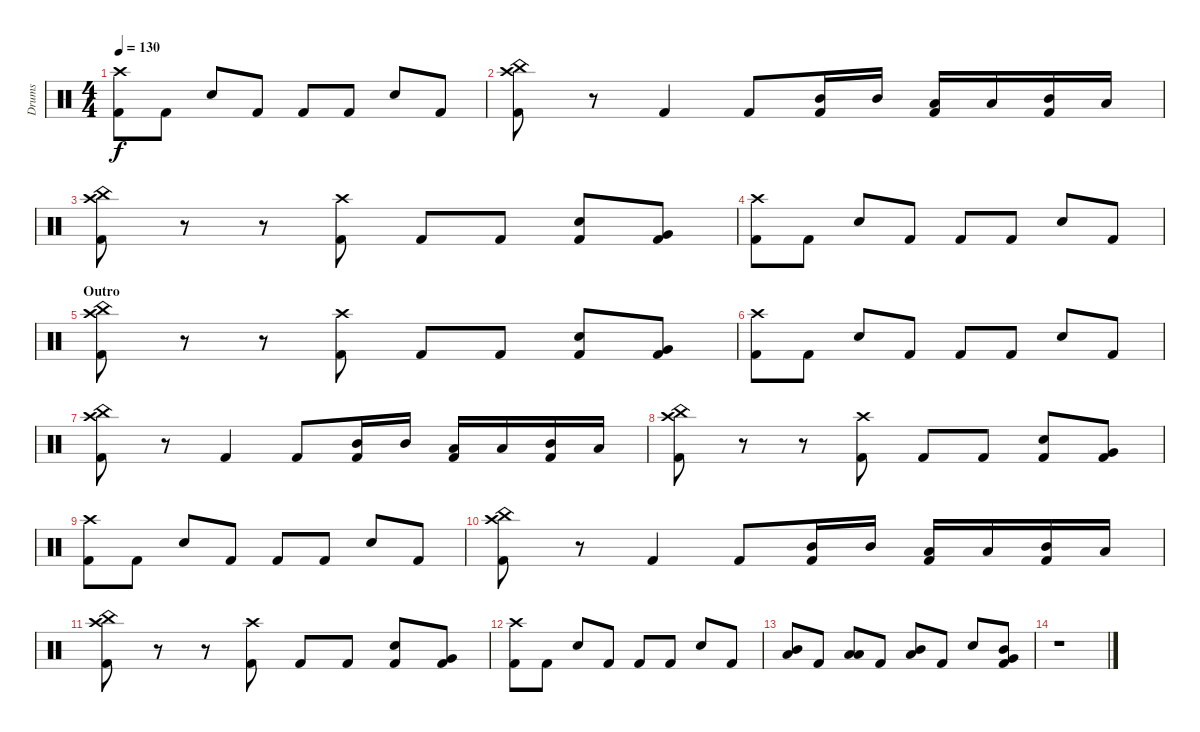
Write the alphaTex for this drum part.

\track ("Drums" "Drums") {instrument percussion}
\staff {score}
\articulation defaults
\ts (4 4)
\tempo 130
\clef neutral
\ks c
("Crash high (hit)" "Kick (hit) 2").8{dy f} "Kick (hit) 2".8 "Electric Snare (hit)".8 "Kick (hit) 2".8 "Kick (hit) 2".8 "Kick (hit) 2".8 "Electric Snare (hit)".8 "Kick (hit) 2".8 |
("China (hit)" "Crash high (hit)" "Kick (hit) 2").8 r.8 "Kick (hit) 2".4 "Kick (hit) 2".8 ("Mid Tom (hit)" "Kick (hit) 2").16 "Mid Tom (hit)".16 ("Low Tom (hit)" "Kick (hit) 2").16 "Low Tom (hit)".16 ("Mid Tom (hit)" "Kick (hit) 2").16 "Low Floor Tom (hit)".16 |
("China (hit)" "Crash high (hit)" "Kick (hit) 2").8 r.8 r.8 ("Crash high (hit)" "Kick (hit) 2").8 "Kick (hit) 2".8 "Kick (hit) 2".8 ("Electric Snare (hit)" "Kick (hit) 2").8 ("Very Low Tom (hit)" "Kick (hit) 2").8 |
("Crash high (hit)" "Kick (hit) 2").8 "Kick (hit) 2".8 "Electric Snare (hit)".8 "Kick (hit) 2".8 "Kick (hit) 2".8 "Kick (hit) 2".8 "Electric Snare (hit)".8 "Kick (hit) 2".8 |
\section ("" "Outro")
("China (hit)" "Crash high (hit)" "Kick (hit) 2").8 r.8 r.8 ("Crash high (hit)" "Kick (hit) 2").8 "Kick (hit) 2".8 "Kick (hit) 2".8 ("Electric Snare (hit)" "Kick (hit) 2").8 ("Very Low Tom (hit)" "Kick (hit) 2").8 |
("Crash high (hit)" "Kick (hit) 2").8 "Kick (hit) 2".8 "Electric Snare (hit)".8 "Kick (hit) 2".8 "Kick (hit) 2".8 "Kick (hit) 2".8 "Electric Snare (hit)".8 "Kick (hit) 2".8 |
("China (hit)" "Crash high (hit)" "Kick (hit) 2").8 r.8 "Kick (hit) 2".4 "Kick (hit) 2".8 ("Mid Tom (hit)" "Kick (hit) 2").16 "Mid Tom (hit)".16 ("Low Tom (hit)" "Kick (hit) 2").16 "Low Tom (hit)".16 ("Mid Tom (hit)" "Kick (hit) 2").16 "Low Floor Tom (hit)".16 |
("China (hit)" "Crash high (hit)" "Kick (hit) 2").8 r.8 r.8 ("Crash high (hit)" "Kick (hit) 2").8 "Kick (hit) 2".8 "Kick (hit) 2".8 ("Electric Snare (hit)" "Kick (hit) 2").8 ("Very Low Tom (hit)" "Kick (hit) 2").8 |
("Crash high (hit)" "Kick (hit) 2").8 "Kick (hit) 2".8 "Electric Snare (hit)".8 "Kick (hit) 2".8 "Kick (hit) 2".8 "Kick (hit) 2".8 "Electric Snare (hit)".8 "Kick (hit) 2".8 |
("China (hit)" "Crash high (hit)" "Kick (hit) 2").8 r.8 "Kick (hit) 2".4 "Kick (hit) 2".8 ("Mid Tom (hit)" "Kick (hit) 2").16 "Mid Tom (hit)".16 ("Low Tom (hit)" "Kick (hit) 2").16 "Low Tom (hit)".16 ("Mid Tom (hit)" "Kick (hit) 2").16 "Low Floor Tom (hit)".16 |
("China (hit)" "Crash high (hit)" "Kick (hit) 2").8 r.8 r.8 ("Crash high (hit)" "Kick (hit) 2").8 "Kick (hit) 2".8 "Kick (hit) 2".8 ("Electric Snare (hit)" "Kick (hit) 2").8 ("Very Low Tom (hit)" "Kick (hit) 2").8 |
("Crash high (hit)" "Kick (hit) 2").8 "Kick (hit) 2".8 "Electric Snare (hit)".8 "Kick (hit) 2".8 "Kick (hit) 2".8 "Kick (hit) 2".8 "Electric Snare (hit)".8 "Kick (hit) 2".8 |
("Mid Tom (hit)" "Low Tom (hit)").8 "Kick (hit) 2".8 ("Low Tom (hit)" "Low Floor Tom (hit)").8 "Kick (hit) 2".8 ("Mid Tom (hit)" "Low Tom (hit)").8 "Kick (hit) 2".8 "Electric Snare (hit)".8 ("Mid Tom (hit)" "Very Low Tom (hit)" "Kick (hit) 2").8 |
r.1
